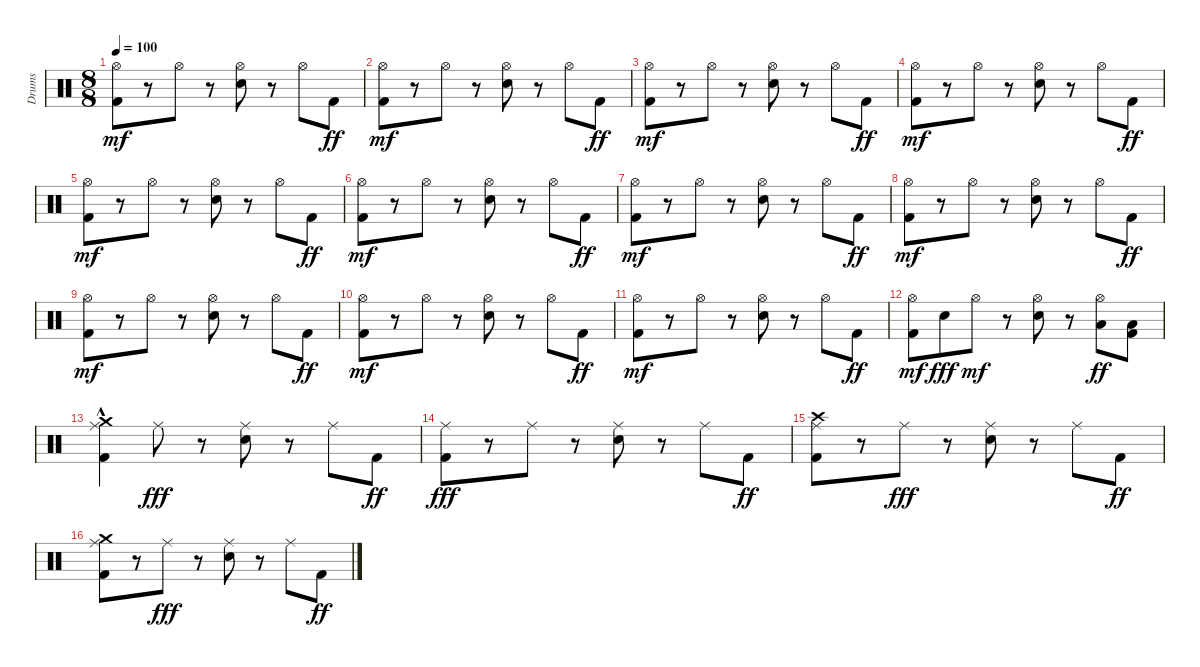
\track ("Drums" "Drums") {instrument percussion}
\staff {score}
\articulation defaults
\ts (8 8)
\tempo 100
\clef neutral
\ks c
("Kick (hit) 2" "Hi-Hat (open)").8{dy mf} r.8 "Hi-Hat (open)".8 r.8 ("Snare (hit) 2" "Hi-Hat (open)").8 r.8 "Hi-Hat (open)".8 "Kick (hit) 2".8{dy ff} |
("Kick (hit) 2" "Hi-Hat (open)").8{dy mf} r.8 "Hi-Hat (open)".8 r.8 ("Snare (hit) 2" "Hi-Hat (open)").8 r.8 "Hi-Hat (open)".8 "Kick (hit) 2".8{dy ff} |
("Kick (hit) 2" "Hi-Hat (open)").8{dy mf} r.8 "Hi-Hat (open)".8 r.8 ("Snare (hit) 2" "Hi-Hat (open)").8 r.8 "Hi-Hat (open)".8 "Kick (hit) 2".8{dy ff} |
("Kick (hit) 2" "Hi-Hat (open)").8{dy mf} r.8 "Hi-Hat (open)".8 r.8 ("Snare (hit) 2" "Hi-Hat (open)").8 r.8 "Hi-Hat (open)".8 "Kick (hit) 2".8{dy ff} |
("Kick (hit) 2" "Hi-Hat (open)").8{dy mf} r.8 "Hi-Hat (open)".8 r.8 ("Snare (hit) 2" "Hi-Hat (open)").8 r.8 "Hi-Hat (open)".8 "Kick (hit) 2".8{dy ff} |
("Kick (hit) 2" "Hi-Hat (open)").8{dy mf} r.8 "Hi-Hat (open)".8 r.8 ("Snare (hit) 2" "Hi-Hat (open)").8 r.8 "Hi-Hat (open)".8 "Kick (hit) 2".8{dy ff} |
("Kick (hit) 2" "Hi-Hat (open)").8{dy mf} r.8 "Hi-Hat (open)".8 r.8 ("Snare (hit) 2" "Hi-Hat (open)").8 r.8 "Hi-Hat (open)".8 "Kick (hit) 2".8{dy ff} |
("Kick (hit) 2" "Hi-Hat (open)").8{dy mf} r.8 "Hi-Hat (open)".8 r.8 ("Snare (hit) 2" "Hi-Hat (open)").8 r.8 "Hi-Hat (open)".8 "Kick (hit) 2".8{dy ff} |
("Kick (hit) 2" "Hi-Hat (open)").8{dy mf} r.8 "Hi-Hat (open)".8 r.8 ("Snare (hit) 2" "Hi-Hat (open)").8 r.8 "Hi-Hat (open)".8 "Kick (hit) 2".8{dy ff} |
("Kick (hit) 2" "Hi-Hat (open)").8{dy mf} r.8 "Hi-Hat (open)".8 r.8 ("Snare (hit) 2" "Hi-Hat (open)").8 r.8 "Hi-Hat (open)".8 "Kick (hit) 2".8{dy ff} |
("Kick (hit) 2" "Hi-Hat (open)").8{dy mf} r.8 "Hi-Hat (open)".8 r.8 ("Snare (hit) 2" "Hi-Hat (open)").8 r.8 "Hi-Hat (open)".8 "Kick (hit) 2".8{dy ff} |
("Kick (hit) 2" "Hi-Hat (open)").8{dy mf} "Snare (hit) 2".8{dy fff} "Hi-Hat (open)".8{dy mf} r.8 ("Snare (hit) 2" "Hi-Hat (open)").8 r.8 ("Hi-Hat (open)" "Low Tom (hit)").8{dy ff} ("Kick (hit) 2" "Low Floor Tom (hit)").8 |
("Kick (hit) 2" "Ride (middle)" "Crash medium (hit)"{hac}).4 "Ride (middle)".8{dy fff} r.8 ("Snare (hit) 2" "Ride (middle)").8 r.8 "Ride (middle)".8 "Kick (hit) 2".8{dy ff} |
("Kick (hit) 2" "Ride (middle)").8{dy fff} r.8 "Ride (middle)".8 r.8 ("Snare (hit) 2" "Ride (middle)").8 r.8 "Ride (middle)".8 "Kick (hit) 2".8{dy ff} |
("Kick (hit) 2" "Ride (middle)" "Crash high (hit)").8 r.8 "Ride (middle)".8{dy fff} r.8 ("Snare (hit) 2" "Ride (middle)").8 r.8 "Ride (middle)".8 "Kick (hit) 2".8{dy ff} |
("Kick (hit) 2" "Ride (middle)" "Crash medium (hit)").8 r.8 "Ride (middle)".8{dy fff} r.8 ("Snare (hit) 2" "Ride (middle)").8 r.8 "Ride (middle)".8 "Kick (hit) 2".8{dy ff}
